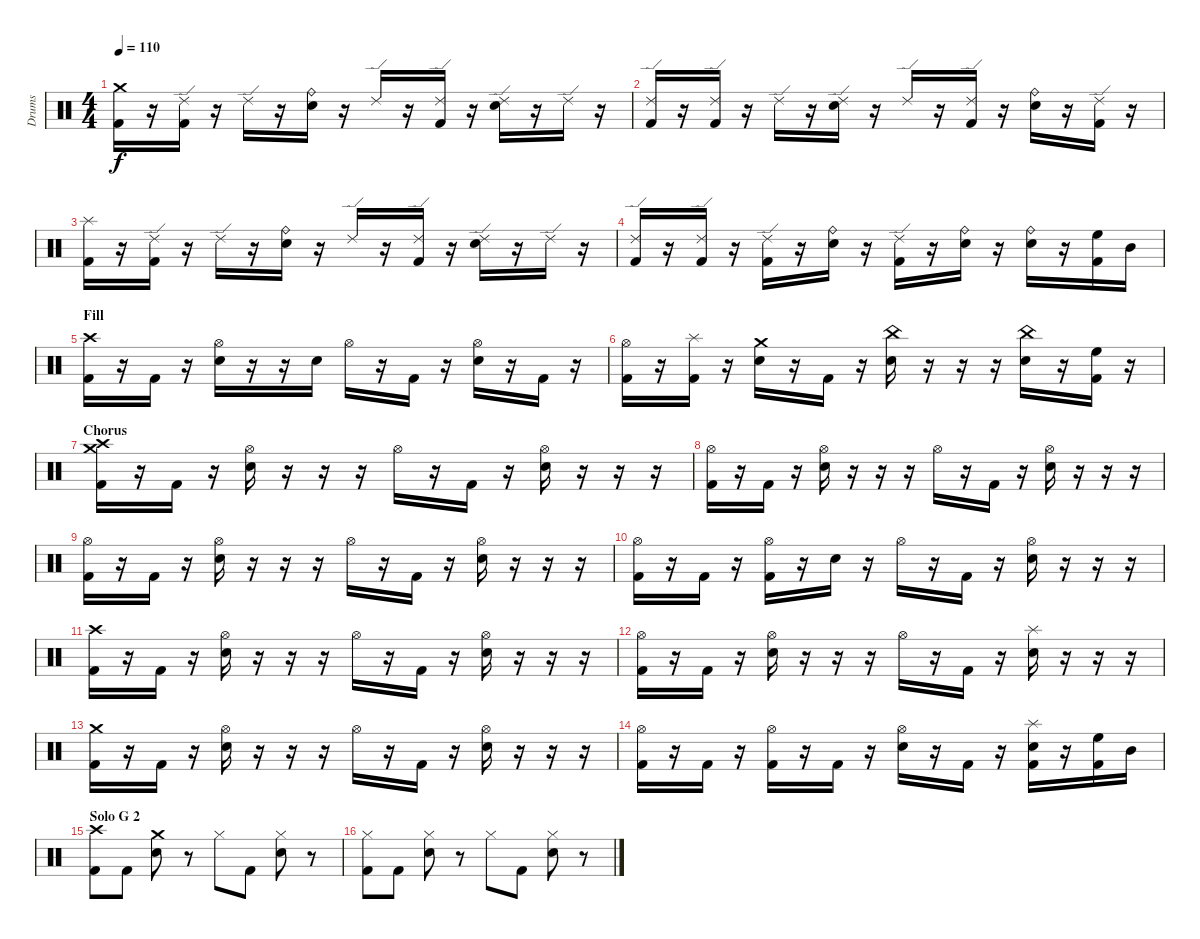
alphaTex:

\track ("Drums" "Drums") {instrument percussion}
\staff {score}
\articulation defaults
\ts (4 4)
\tempo 110
\clef neutral
\ks c
("Crash medium (hit)" "Kick (hit) 2").16{dy f} r.16 ("Ride (edge) 2" "Kick (hit) 2").16 r.16 "Ride (edge) 2".16 r.16 ("Ride (bell)" "Electric Snare (hit)").16 r.16 "Ride (edge) 2".16 r.16 ("Ride (edge) 2" "Kick (hit) 2").16 r.16 ("Ride (edge) 2" "Electric Snare (hit)").16 r.16 "Ride (edge) 2".16 r.16 |
("Ride (edge) 2" "Kick (hit) 2").16 r.16 ("Ride (edge) 2" "Kick (hit) 2").16 r.16 "Ride (edge) 2".16 r.16 ("Ride (edge) 2" "Electric Snare (hit)").16 r.16 "Ride (edge) 2".16 r.16 ("Ride (edge) 2" "Kick (hit) 2").16 r.16 ("Ride (bell)" "Electric Snare (hit)").16 r.16 ("Ride (edge) 2" "Kick (hit) 2").16 r.16 |
("Splash (hit)" "Kick (hit) 2").16 r.16 ("Ride (edge) 2" "Kick (hit) 2").16 r.16 "Ride (edge) 2".16 r.16 ("Ride (bell)" "Electric Snare (hit)").16 r.16 "Ride (edge) 2".16 r.16 ("Ride (edge) 2" "Kick (hit) 2").16 r.16 ("Ride (edge) 2" "Electric Snare (hit)").16 r.16 "Ride (edge) 2".16 r.16 |
("Ride (edge) 2" "Kick (hit) 2").16 r.16 ("Ride (edge) 2" "Kick (hit) 2").16 r.16 ("Ride (edge) 2" "Kick (hit) 2").16 r.16 ("Ride (bell)" "Electric Snare (hit)").16 r.16 ("Ride (edge) 2" "Kick (hit) 2").16 r.16 ("Ride (bell)" "Electric Snare (hit)").16 r.16 ("Ride (bell)" "Electric Snare (hit)").16 r.16 ("High Floor Tom (hit)" "Kick (hit) 2").16 "Mid Tom (hit)".16 |
\section ("" "Fill")
("Crash high (hit)" "Kick (hit) 2").16 r.16 "Kick (hit) 2".16 r.16 ("Hi-Hat (open)" "Electric Snare (hit)").16 r.16 r.16 "Electric Snare (hit)".16 "Hi-Hat (open)".16 r.16 "Kick (hit) 2".16 r.16 ("Hi-Hat (open)" "Electric Snare (hit)").16 r.16 "Kick (hit) 2".16 r.16 |
("Hi-Hat (open)" "Kick (hit) 2").16 r.16 ("Splash (hit)" "Kick (hit) 2").16 r.16 ("Crash medium (hit)" "Electric Snare (hit)").16 r.16 "Kick (hit) 2".16 r.16 ("China (hit)" "Electric Snare (hit)").16 r.16 r.16 r.16 ("China (hit)" "Electric Snare (hit)").16 r.16 ("High Floor Tom (hit)" "Kick (hit) 2").16 r.16 |
\section ("" "Chorus")
("Crash high (hit)" "Crash medium (hit)" "Kick (hit) 2").16 r.16 "Kick (hit) 2".16 r.16 ("Hi-Hat (open)" "Electric Snare (hit)").16 r.16 r.16 r.16 "Hi-Hat (open)".16 r.16 "Kick (hit) 2".16 r.16 ("Hi-Hat (open)" "Electric Snare (hit)").16 r.16 r.16 r.16 |
("Hi-Hat (open)" "Kick (hit) 2").16 r.16 "Kick (hit) 2".16 r.16 ("Hi-Hat (open)" "Electric Snare (hit)").16 r.16 r.16 r.16 "Hi-Hat (open)".16 r.16 "Kick (hit) 2".16 r.16 ("Hi-Hat (open)" "Electric Snare (hit)").16 r.16 r.16 r.16 |
("Hi-Hat (open)" "Kick (hit) 2").16 r.16 "Kick (hit) 2".16 r.16 ("Hi-Hat (open)" "Electric Snare (hit)").16 r.16 r.16 r.16 "Hi-Hat (open)".16 r.16 "Kick (hit) 2".16 r.16 ("Hi-Hat (open)" "Electric Snare (hit)").16 r.16 r.16 r.16 |
("Hi-Hat (open)" "Kick (hit) 2").16 r.16 "Kick (hit) 2".16 r.16 ("Hi-Hat (open)" "Kick (hit) 2").16 r.16 "Electric Snare (hit)".16 r.16 "Hi-Hat (open)".16 r.16 "Kick (hit) 2".16 r.16 ("Hi-Hat (open)" "Electric Snare (hit)").16 r.16 r.16 r.16 |
("Crash high (hit)" "Kick (hit) 2").16 r.16 "Kick (hit) 2".16 r.16 ("Hi-Hat (open)" "Electric Snare (hit)").16 r.16 r.16 r.16 "Hi-Hat (open)".16 r.16 "Kick (hit) 2".16 r.16 ("Hi-Hat (open)" "Electric Snare (hit)").16 r.16 r.16 r.16 |
("Hi-Hat (open)" "Kick (hit) 2").16 r.16 "Kick (hit) 2".16 r.16 ("Hi-Hat (open)" "Electric Snare (hit)").16 r.16 r.16 r.16 "Hi-Hat (open)".16 r.16 "Kick (hit) 2".16 r.16 ("Splash (hit)" "Electric Snare (hit)").16 r.16 r.16 r.16 |
("Crash medium (hit)" "Kick (hit) 2").16 r.16 "Kick (hit) 2".16 r.16 ("Hi-Hat (open)" "Electric Snare (hit)").16 r.16 r.16 r.16 "Hi-Hat (open)".16 r.16 "Kick (hit) 2".16 r.16 ("Hi-Hat (open)" "Electric Snare (hit)").16 r.16 r.16 r.16 |
("Hi-Hat (open)" "Kick (hit) 2").16 r.16 "Kick (hit) 2".16 r.16 ("Hi-Hat (open)" "Kick (hit) 2").16 r.16 "Kick (hit) 2".16 r.16 ("Hi-Hat (open)" "Electric Snare (hit)").16 r.16 "Kick (hit) 2".16 r.16 ("Splash (hit)" "Electric Snare (hit)" "Kick (hit) 2").16 r.16 ("High Floor Tom (hit)" "Kick (hit) 2").16 "Mid Tom (hit)".16 |
\section ("" "Solo G 2")
("Crash high (hit)" "Kick (hit) 2").8 "Kick (hit) 2".8 ("Crash medium (hit)" "Electric Snare (hit)").8 r.8 "Hi-Hat (closed)".8 "Kick (hit) 2".8 ("Hi-Hat (closed)" "Electric Snare (hit)").8 r.8 |
("Hi-Hat (closed)" "Kick (hit) 2").8 "Kick (hit) 2".8 ("Hi-Hat (closed)" "Electric Snare (hit)").8 r.8 "Hi-Hat (closed)".8 "Kick (hit) 2".8 ("Hi-Hat (closed)" "Electric Snare (hit)").8 r.8
